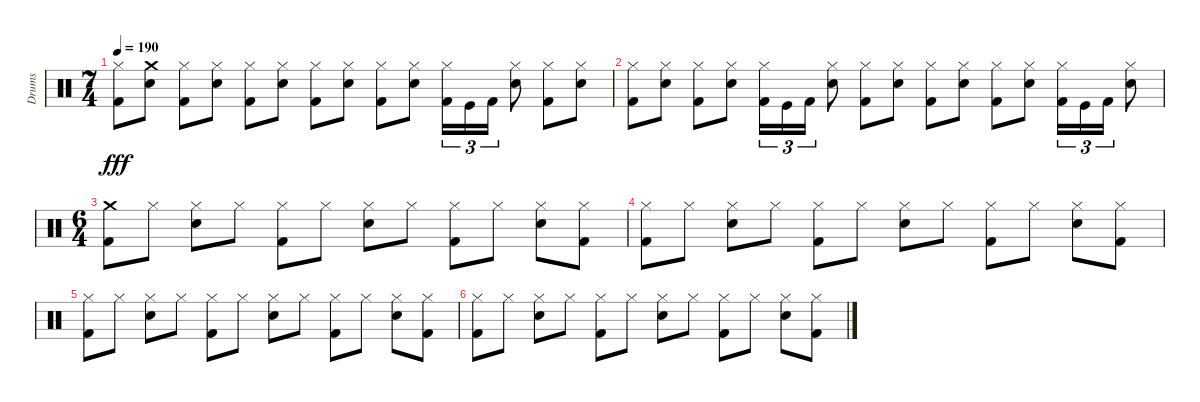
\track ("Drums" "Drums") {instrument percussion}
\staff {score}
\articulation defaults
\ts (7 4)
\tempo 190
\clef neutral
\ks c
("Hi-Hat (closed)" "Kick (hit) 2").8{dy fff} ("Crash medium (hit)" "Snare (hit) 2").8 ("Hi-Hat (closed)" "Kick (hit) 2").8 ("Snare (hit) 2" "Hi-Hat (closed)").8 ("Hi-Hat (closed)" "Kick (hit) 2").8 ("Snare (hit) 2" "Hi-Hat (closed)").8 ("Hi-Hat (closed)" "Kick (hit) 2").8 ("Snare (hit) 2" "Hi-Hat (closed)").8 ("Hi-Hat (closed)" "Kick (hit) 2").8 ("Snare (hit) 2" "Hi-Hat (closed)").8 ("Hi-Hat (closed)" "Kick (hit) 2").16{tu (3 2)} "Kick (hit)".16{tu (3 2)} "Kick (hit) 2".16{tu (3 2)} ("Snare (hit) 2" "Hi-Hat (closed)").8 ("Hi-Hat (closed)" "Kick (hit) 2").8 ("Snare (hit) 2" "Hi-Hat (closed)").8 |
("Hi-Hat (closed)" "Kick (hit) 2").8 ("Snare (hit) 2" "Hi-Hat (closed)").8 ("Hi-Hat (closed)" "Kick (hit) 2").8 ("Snare (hit) 2" "Hi-Hat (closed)").8 ("Hi-Hat (closed)" "Kick (hit) 2").16{tu (3 2)} "Kick (hit)".16{tu (3 2)} "Kick (hit) 2".16{tu (3 2)} ("Snare (hit) 2" "Hi-Hat (closed)").8 ("Hi-Hat (closed)" "Kick (hit) 2").8 ("Snare (hit) 2" "Hi-Hat (closed)").8 ("Hi-Hat (closed)" "Kick (hit) 2").8 ("Snare (hit) 2" "Hi-Hat (closed)").8 ("Kick (hit) 2" "Hi-Hat (closed)").8 ("Snare (hit) 2" "Hi-Hat (closed)").8 ("Kick (hit) 2" "Hi-Hat (closed)").16{tu (3 2)} "Kick (hit)".16{tu (3 2)} "Kick (hit) 2".16{tu (3 2)} ("Snare (hit) 2" "Hi-Hat (closed)").8 |
\ts (6 4)
("Kick (hit) 2" "Crash medium (hit)").8 "Hi-Hat (closed)".8 ("Snare (hit) 2" "Hi-Hat (closed)").8 "Hi-Hat (closed)".8 ("Kick (hit) 2" "Hi-Hat (closed)").8 "Hi-Hat (closed)".8 ("Snare (hit) 2" "Hi-Hat (closed)").8 "Hi-Hat (closed)".8 ("Kick (hit) 2" "Hi-Hat (closed)").8 "Hi-Hat (closed)".8 ("Snare (hit) 2" "Hi-Hat (closed)").8 ("Kick (hit) 2" "Hi-Hat (closed)").8 |
("Hi-Hat (closed)" "Kick (hit) 2").8 "Hi-Hat (closed)".8 ("Snare (hit) 2" "Hi-Hat (closed)").8 "Hi-Hat (closed)".8 ("Kick (hit) 2" "Hi-Hat (closed)").8 "Hi-Hat (closed)".8 ("Snare (hit) 2" "Hi-Hat (closed)").8 "Hi-Hat (closed)".8 ("Kick (hit) 2" "Hi-Hat (closed)").8 "Hi-Hat (closed)".8 ("Snare (hit) 2" "Hi-Hat (closed)").8 ("Kick (hit) 2" "Hi-Hat (closed)").8 |
("Hi-Hat (closed)" "Kick (hit) 2").8 "Hi-Hat (closed)".8 ("Snare (hit) 2" "Hi-Hat (closed)").8 "Hi-Hat (closed)".8 ("Kick (hit) 2" "Hi-Hat (closed)").8 "Hi-Hat (closed)".8 ("Snare (hit) 2" "Hi-Hat (closed)").8 "Hi-Hat (closed)".8 ("Kick (hit) 2" "Hi-Hat (closed)").8 "Hi-Hat (closed)".8 ("Snare (hit) 2" "Hi-Hat (closed)").8 ("Kick (hit) 2" "Hi-Hat (closed)").8 |
("Hi-Hat (closed)" "Kick (hit) 2").8 "Hi-Hat (closed)".8 ("Snare (hit) 2" "Hi-Hat (closed)").8 "Hi-Hat (closed)".8 ("Kick (hit) 2" "Hi-Hat (closed)").8 "Hi-Hat (closed)".8 ("Snare (hit) 2" "Hi-Hat (closed)").8 "Hi-Hat (closed)".8 ("Kick (hit) 2" "Hi-Hat (closed)").8 "Hi-Hat (closed)".8 ("Snare (hit) 2" "Hi-Hat (closed)").8 ("Kick (hit) 2" "Hi-Hat (closed)").8
